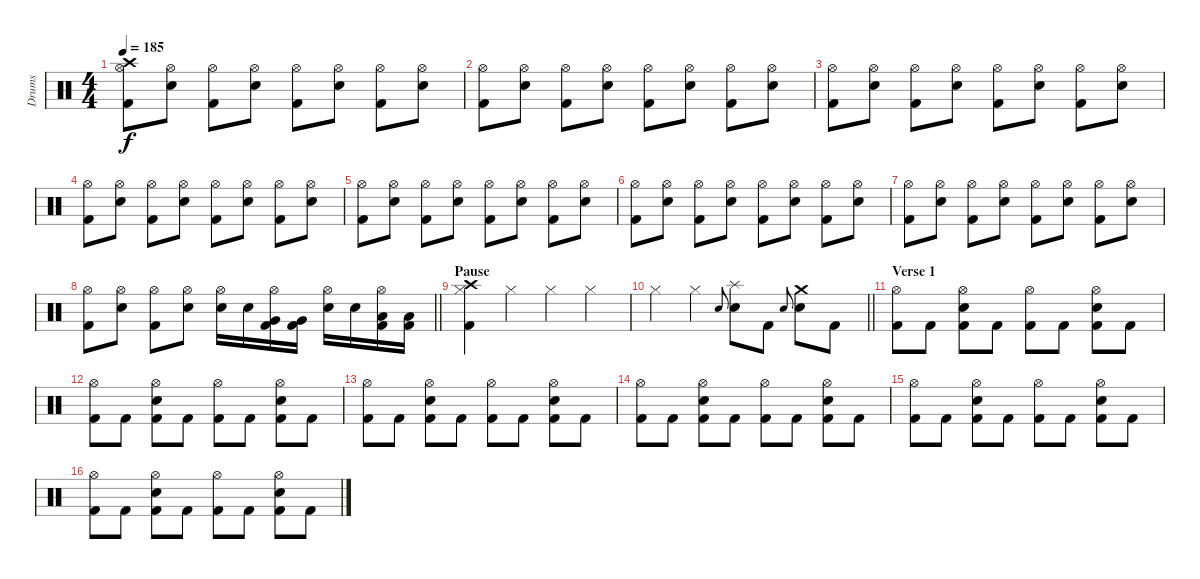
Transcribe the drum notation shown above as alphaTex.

\track ("Drums" "Drums") {instrument percussion}
\staff {score}
\articulation defaults
\ts (4 4)
\tempo 185
\clef neutral
\ks c
("Hi-Hat (open)" "Crash high (hit)" "Kick (hit) 2").8{dy f} ("Hi-Hat (open)" "Snare (hit) 2").8 ("Hi-Hat (open)" "Kick (hit) 2").8 ("Hi-Hat (open)" "Snare (hit) 2").8 ("Hi-Hat (open)" "Kick (hit) 2").8 ("Hi-Hat (open)" "Snare (hit) 2").8 ("Hi-Hat (open)" "Kick (hit) 2").8 ("Hi-Hat (open)" "Snare (hit) 2").8 |
("Hi-Hat (open)" "Kick (hit) 2").8 ("Hi-Hat (open)" "Snare (hit) 2").8 ("Hi-Hat (open)" "Kick (hit) 2").8 ("Hi-Hat (open)" "Snare (hit) 2").8 ("Hi-Hat (open)" "Kick (hit) 2").8 ("Hi-Hat (open)" "Snare (hit) 2").8 ("Hi-Hat (open)" "Kick (hit) 2").8 ("Hi-Hat (open)" "Snare (hit) 2").8 |
("Hi-Hat (open)" "Kick (hit) 2").8 ("Hi-Hat (open)" "Snare (hit) 2").8 ("Hi-Hat (open)" "Kick (hit) 2").8 ("Hi-Hat (open)" "Snare (hit) 2").8 ("Hi-Hat (open)" "Kick (hit) 2").8 ("Hi-Hat (open)" "Snare (hit) 2").8 ("Hi-Hat (open)" "Kick (hit) 2").8 ("Hi-Hat (open)" "Snare (hit) 2").8 |
("Hi-Hat (open)" "Kick (hit) 2").8 ("Hi-Hat (open)" "Snare (hit) 2").8 ("Hi-Hat (open)" "Kick (hit) 2").8 ("Hi-Hat (open)" "Snare (hit) 2").8 ("Hi-Hat (open)" "Kick (hit) 2").8 ("Hi-Hat (open)" "Snare (hit) 2").8 ("Hi-Hat (open)" "Kick (hit) 2").8 ("Hi-Hat (open)" "Snare (hit) 2").8 |
("Hi-Hat (open)" "Kick (hit) 2").8 ("Hi-Hat (open)" "Snare (hit) 2").8 ("Hi-Hat (open)" "Kick (hit) 2").8 ("Hi-Hat (open)" "Snare (hit) 2").8 ("Hi-Hat (open)" "Kick (hit) 2").8 ("Hi-Hat (open)" "Snare (hit) 2").8 ("Hi-Hat (open)" "Kick (hit) 2").8 ("Hi-Hat (open)" "Snare (hit) 2").8 |
("Hi-Hat (open)" "Kick (hit) 2").8 ("Hi-Hat (open)" "Snare (hit) 2").8 ("Hi-Hat (open)" "Kick (hit) 2").8 ("Hi-Hat (open)" "Snare (hit) 2").8 ("Hi-Hat (open)" "Kick (hit) 2").8 ("Hi-Hat (open)" "Snare (hit) 2").8 ("Hi-Hat (open)" "Kick (hit) 2").8 ("Hi-Hat (open)" "Snare (hit) 2").8 |
("Hi-Hat (open)" "Kick (hit) 2").8 ("Hi-Hat (open)" "Snare (hit) 2").8 ("Hi-Hat (open)" "Kick (hit) 2").8 ("Hi-Hat (open)" "Snare (hit) 2").8 ("Hi-Hat (open)" "Kick (hit) 2").8 ("Hi-Hat (open)" "Snare (hit) 2").8 ("Hi-Hat (open)" "Kick (hit) 2").8 ("Hi-Hat (open)" "Snare (hit) 2").8 |
\barLineRight lightlight
("Hi-Hat (open)" "Kick (hit) 2").8 ("Hi-Hat (open)" "Snare (hit) 2").8 ("Hi-Hat (open)" "Kick (hit) 2").8 ("Hi-Hat (open)" "Snare (hit) 2").8 ("Hi-Hat (open)" "Snare (hit) 2").16 "Snare (hit) 2".16 ("Hi-Hat (open)" "Very Low Tom (hit)" "Kick (hit) 2").16 ("Very Low Tom (hit)" "Kick (hit) 2").16 ("Hi-Hat (open)" "Snare (hit) 2").16 "Snare (hit) 2".16 ("Hi-Hat (open)" "Low Floor Tom (hit)" "Kick (hit) 2").16 ("Low Floor Tom (hit)" "Kick (hit) 2").16 |
\section ("" "Pause")
("Crash high (hit)" "Hi-Hat (closed)" "Kick (hit) 2").4 "Hi-Hat (closed)".4 "Hi-Hat (closed)".4 "Hi-Hat (closed)".4 |
\barLineRight lightlight "Hi-Hat (closed)".4 "Hi-Hat (closed)".4 "Snare (hit) 2".8{gr onbeat}
("Splash (hit)" "Snare (hit) 2").8 "Kick (hit) 2".8 "Snare (hit) 2".8{gr onbeat} ("Crash medium (hit)" "Snare (hit) 2").8 "Kick (hit) 2".8 |
\section ("" "Verse 1")
("Hi-Hat (open)" "Kick (hit) 2").8 "Kick (hit) 2".8 ("Hi-Hat (open)" "Snare (hit) 2" "Kick (hit) 2").8 "Kick (hit) 2".8 ("Hi-Hat (open)" "Kick (hit) 2").8 "Kick (hit) 2".8 ("Hi-Hat (open)" "Snare (hit) 2" "Kick (hit) 2").8 "Kick (hit) 2".8 |
("Hi-Hat (open)" "Kick (hit) 2").8 "Kick (hit) 2".8 ("Hi-Hat (open)" "Snare (hit) 2" "Kick (hit) 2").8 "Kick (hit) 2".8 ("Hi-Hat (open)" "Kick (hit) 2").8 "Kick (hit) 2".8 ("Hi-Hat (open)" "Snare (hit) 2" "Kick (hit) 2").8 "Kick (hit) 2".8 |
("Hi-Hat (open)" "Kick (hit) 2").8 "Kick (hit) 2".8 ("Hi-Hat (open)" "Snare (hit) 2" "Kick (hit) 2").8 "Kick (hit) 2".8 ("Hi-Hat (open)" "Kick (hit) 2").8 "Kick (hit) 2".8 ("Hi-Hat (open)" "Snare (hit) 2" "Kick (hit) 2").8 "Kick (hit) 2".8 |
("Hi-Hat (open)" "Kick (hit) 2").8 "Kick (hit) 2".8 ("Hi-Hat (open)" "Snare (hit) 2" "Kick (hit) 2").8 "Kick (hit) 2".8 ("Hi-Hat (open)" "Kick (hit) 2").8 "Kick (hit) 2".8 ("Hi-Hat (open)" "Snare (hit) 2" "Kick (hit) 2").8 "Kick (hit) 2".8 |
("Hi-Hat (open)" "Kick (hit) 2").8 "Kick (hit) 2".8 ("Hi-Hat (open)" "Snare (hit) 2" "Kick (hit) 2").8 "Kick (hit) 2".8 ("Hi-Hat (open)" "Kick (hit) 2").8 "Kick (hit) 2".8 ("Hi-Hat (open)" "Snare (hit) 2" "Kick (hit) 2").8 "Kick (hit) 2".8 |
("Hi-Hat (open)" "Kick (hit) 2").8 "Kick (hit) 2".8 ("Hi-Hat (open)" "Snare (hit) 2" "Kick (hit) 2").8 "Kick (hit) 2".8 ("Hi-Hat (open)" "Kick (hit) 2").8 "Kick (hit) 2".8 ("Hi-Hat (open)" "Snare (hit) 2" "Kick (hit) 2").8 "Kick (hit) 2".8
